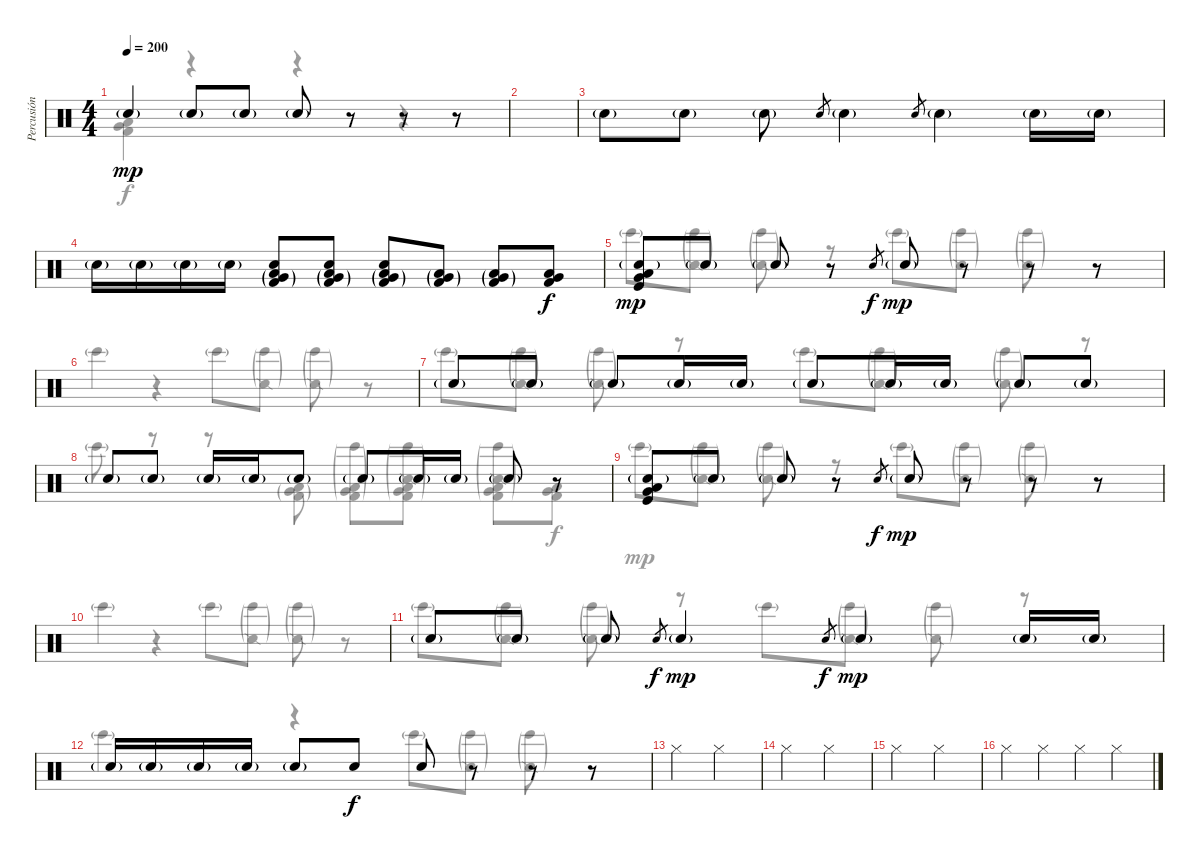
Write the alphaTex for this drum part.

\track ("Percusión" "Percusión") {instrument percussion}
\staff {score}
\articulation defaults
\voice
\ts (4 4)
\tempo 200
\clef neutral
\ks c "Electric Snare (hit)"{g}.4{dy mp} "Electric Snare (hit)"{g}.8 "Electric Snare (hit)"{g}.8 "Electric Snare (hit)"{g}.8
r.8 r.8 r.8 |
|
"Electric Snare (hit)"{g}.8 "Electric Snare (hit)"{g}.8 "Electric Snare (hit)"{g}.8 "Electric Snare (hit)".8{gr} "Electric Snare (hit)"{g}.4 "Electric Snare (hit)".8{gr} "Electric Snare (hit)"{g}.4 "Electric Snare (hit)"{g}.16 "Electric Snare (hit)"{g}.16 |
"Electric Snare (hit)"{g}.16 "Electric Snare (hit)"{g}.16 "Electric Snare (hit)"{g}.16 "Electric Snare (hit)"{g}.16 ("Very Low Tom (hit)"{g} "Electric Snare (hit)" "Low Floor Tom (hit)"{g} "Kick (hit) 2"{g}).8 ("Very Low Tom (hit)"{g} "Electric Snare (hit)" "Low Floor Tom (hit)"{g} "Kick (hit) 2"{g}).8 ("Very Low Tom (hit)"{g} "Electric Snare (hit)" "Low Floor Tom (hit)"{g} "Kick (hit) 2"{g}).8 ("Very Low Tom (hit)"{g} "Low Floor Tom (hit)"{g} "Kick (hit) 2"{g}).8 ("Very Low Tom (hit)"{g} "Low Floor Tom (hit)"{g} "Kick (hit) 2"{g}).8 ("Very Low Tom (hit)" "Low Floor Tom (hit)" "Kick (hit) 2").8{dy f} |
("Very Low Tom (hit)" "Electric Snare (hit)"{g} "Low Floor Tom (hit)" "Kick (hit)").8{dy mp} "Electric Snare (hit)"{g}.8 "Electric Snare (hit)"{g}.8 r.8 "Electric Snare (hit)".8{gr dy f} "Electric Snare (hit)"{g}.8{dy mp} r.8 r.8 r.8 |
|
"Electric Snare (hit)"{g}.8 "Electric Snare (hit)"{g}.8 "Electric Snare (hit)"{g}.8 "Electric Snare (hit)"{g}.16 "Electric Snare (hit)"{g}.16 "Electric Snare (hit)"{g}.8 "Electric Snare (hit)"{g}.16 "Electric Snare (hit)"{g}.16 "Electric Snare (hit)"{g}.8 "Electric Snare (hit)"{g}.8 |
"Electric Snare (hit)"{g}.8 "Electric Snare (hit)"{g}.8 "Electric Snare (hit)"{g}.16 "Electric Snare (hit)"{g}.16 "Electric Snare (hit)"{g}.8 "Electric Snare (hit)"{g}.8 "Electric Snare (hit)"{g}.16 "Electric Snare (hit)"{g}.16 "Electric Snare (hit)"{g}.8 r.8 |
("Very Low Tom (hit)" "Electric Snare (hit)"{g} "Low Floor Tom (hit)" "Kick (hit)").8 "Electric Snare (hit)"{g}.8 "Electric Snare (hit)"{g}.8 r.8 "Electric Snare (hit)".8{gr dy f} "Electric Snare (hit)"{g}.8{dy mp} r.8 r.8 r.8 |
|
"Electric Snare (hit)"{g}.8 "Electric Snare (hit)"{g}.8 "Electric Snare (hit)"{g}.8 "Electric Snare (hit)".8{gr dy f} "Electric Snare (hit)"{g}.4{dy mp} "Electric Snare (hit)".8{gr dy f} "Electric Snare (hit)"{g}.4{dy mp} "Electric Snare (hit)"{g}.16 "Electric Snare (hit)"{g}.16 |
"Electric Snare (hit)"{g}.16 "Electric Snare (hit)"{g}.16 "Electric Snare (hit)"{g}.16 "Electric Snare (hit)"{g}.16 "Electric Snare (hit)"{g}.8 "Electric Snare (hit)".8{dy f} "Electric Snare (hit)".8 r.8 r.8 r.8 |
"Hi-Hat (closed)".2 "Hi-Hat (closed)".2 |
"Hi-Hat (closed)".2 "Hi-Hat (closed)".2 |
"Hi-Hat (closed)".2 "Hi-Hat (closed)".2 |
"Hi-Hat (closed)".4 "Hi-Hat (closed)".4 "Hi-Hat (closed)".4 "Hi-Hat (closed)".4
\voice
\clef neutral
\ottava regular
\simile none
\ks c
("Low Floor Tom (hit)" "Very Low Tom (hit)" "Kick (hit) 2").4{dy f} r.4 r.4 r.4 |
|
|
|
"Bongo High (hit)"{g}.8{dy mp} ("Snare (side stick) 2"{g} "Bongo High (hit)"{g}).8 ("Snare (side stick) 2"{g} "Bongo High (hit)"{g}).8 r.8 "Bongo High (hit)"{g}.8 ("Snare (side stick) 2"{g} "Bongo High (hit)"{g}).8 ("Snare (side stick) 2"{g} "Bongo High (hit)"{g}).8 r.8 |
"Bongo High (hit)"{g}.4 r.4 "Bongo High (hit)"{g}.8 ("Bongo High (hit)"{g} "Snare (side stick) 2"{g}).8 ("Bongo High (hit)"{g} "Snare (side stick) 2"{g}).8 r.8 |
"Bongo High (hit)"{g}.8 ("Snare (side stick) 2"{g} "Bongo High (hit)"{g}).8 ("Snare (side stick) 2"{g} "Bongo High (hit)"{g}).8 r.8 "Bongo High (hit)"{g}.8 ("Snare (side stick) 2"{g} "Bongo High (hit)"{g}).8 ("Snare (side stick) 2"{g} "Bongo High (hit)"{g}).8 r.8 |
"Bongo High (hit)"{g}.8 r.8 r.8 ("Low Floor Tom (hit)"{g} "Very Low Tom (hit)"{g} "Kick (hit) 2"{g}).8 ("Bongo High (hit)"{g} "Low Floor Tom (hit)"{g} "Very Low Tom (hit)"{g} "Kick (hit) 2"{g}).8 ("Bongo High (hit)"{g} "Snare (side stick) 2"{g} "Low Floor Tom (hit)"{g} "Very Low Tom (hit)"{g} "Kick (hit) 2"{g}).8 ("Bongo High (hit)"{g} "Snare (side stick) 2"{g} "Low Floor Tom (hit)"{g} "Very Low Tom (hit)"{g} "Kick (hit) 2"{g}).8 ("Low Floor Tom (hit)" "Very Low Tom (hit)" "Kick (hit) 2").8{dy f} |
"Bongo High (hit)"{g}.8{dy mp} ("Snare (side stick) 2"{g} "Bongo High (hit)"{g}).8 ("Snare (side stick) 2"{g} "Bongo High (hit)"{g}).8 r.8 "Bongo High (hit)"{g}.8 ("Snare (side stick) 2"{g} "Bongo High (hit)"{g}).8 ("Snare (side stick) 2"{g} "Bongo High (hit)"{g}).8 r.8 |
"Bongo High (hit)"{g}.4 r.4 "Bongo High (hit)"{g}.8 ("Bongo High (hit)"{g} "Snare (side stick) 2"{g}).8 ("Bongo High (hit)"{g} "Snare (side stick) 2"{g}).8 r.8 |
"Bongo High (hit)"{g}.8 ("Snare (side stick) 2"{g} "Bongo High (hit)"{g}).8 ("Snare (side stick) 2"{g} "Bongo High (hit)"{g}).8 r.8 "Bongo High (hit)"{g}.8 ("Snare (side stick) 2"{g} "Bongo High (hit)"{g}).8 ("Snare (side stick) 2"{g} "Bongo High (hit)"{g}).8 r.8 |
"Bongo High (hit)"{g}.4 r.4 "Bongo High (hit)"{g}.8 ("Bongo High (hit)"{g} "Snare (side stick) 2"{g}).8 ("Bongo High (hit)"{g} "Snare (side stick) 2"{g}).8 r.8 |
|
|
|
